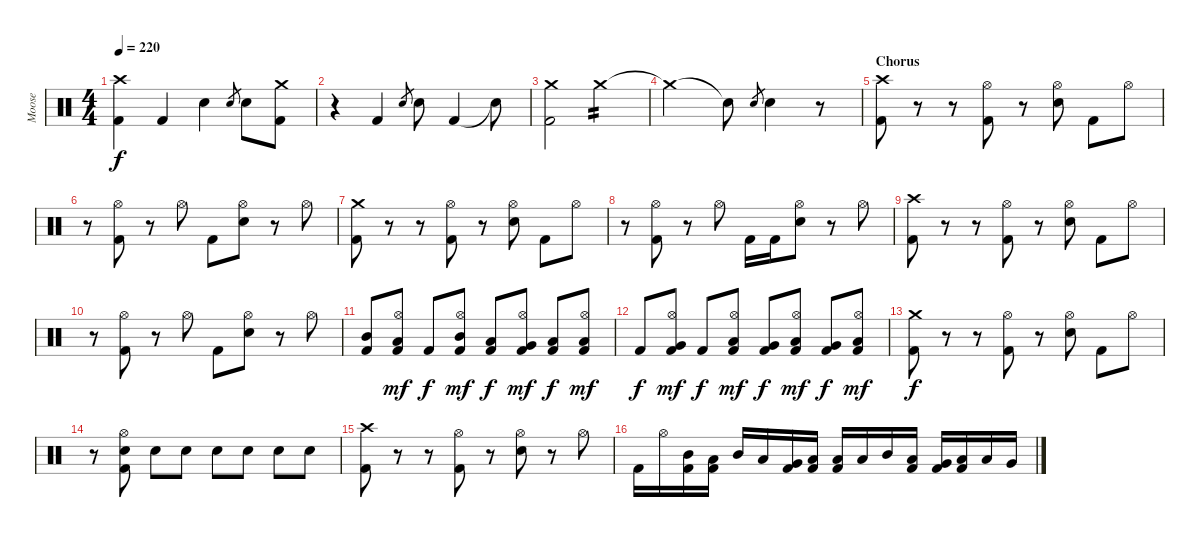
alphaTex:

\track ("Moose" "Moose") {instrument percussion}
\staff {score}
\articulation defaults
\ts (4 4)
\tempo 220
\clef neutral
\ks c
("Kick (hit) 2" "Crash high (hit)").4{dy f} "Kick (hit) 2".4 "Snare (hit) 2".4 "Snare (hit) 2".8{gr} "Snare (hit) 2".8 ("Kick (hit) 2" "Crash medium (hit)").8 |
r.4 "Kick (hit) 2".4 "Snare (hit) 2".8{gr} "Snare (hit) 2".8 "Kick (hit) 2".4 "Snare (hit)"{t}.8 |
("Kick (hit) 2" "Crash medium (hit)").2 "Crash medium (hit)".2{tp 2} |
"Crash medium (hit)"{t}.2 "Snare (hit)"{t}.8 "Snare (hit) 2".8{gr} "Snare (hit) 2".4 r.8 |
\section ("" "Chorus")
("Kick (hit) 2" "Crash high (hit)").8 r.8 r.8 ("Kick (hit) 2" "Hi-Hat (open)").8 r.8 ("Snare (hit) 2" "Hi-Hat (open)").8 "Kick (hit) 2".8 "Hi-Hat (open)".8 |
r.8 ("Kick (hit) 2" "Hi-Hat (open)").8 r.8 "Hi-Hat (open)".8 "Kick (hit) 2".8 ("Snare (hit) 2" "Hi-Hat (open)").8 r.8 "Hi-Hat (open)".8 |
("Kick (hit) 2" "Crash medium (hit)").8 r.8 r.8 ("Kick (hit) 2" "Hi-Hat (open)").8 r.8 ("Snare (hit) 2" "Hi-Hat (open)").8 "Kick (hit) 2".8 "Hi-Hat (open)".8 |
r.8 ("Kick (hit) 2" "Hi-Hat (open)").8 r.8 "Hi-Hat (open)".8 "Kick (hit) 2".16 "Kick (hit) 2".16 ("Snare (hit) 2" "Hi-Hat (open)").8 r.8 "Hi-Hat (open)".8 |
("Kick (hit) 2" "Crash high (hit)").8 r.8 r.8 ("Kick (hit) 2" "Hi-Hat (open)").8 r.8 ("Snare (hit) 2" "Hi-Hat (open)").8 "Kick (hit) 2".8 "Hi-Hat (open)".8 |
r.8 ("Kick (hit) 2" "Hi-Hat (open)").8 r.8 "Hi-Hat (open)".8 "Kick (hit) 2".8 ("Snare (hit) 2" "Hi-Hat (open)").8 r.8 "Hi-Hat (open)".8 |
("Kick (hit) 2" "Mid Tom (hit)").8 ("Kick (hit) 2" "Low Tom (hit)" "Hi-Hat (open)").8{dy mf} "Kick (hit) 2".8{dy f} ("Kick (hit) 2" "Mid Tom (hit)" "Hi-Hat (open)").8{dy mf} ("Kick (hit) 2" "Low Tom (hit)").8{dy f} ("Kick (hit) 2" "Very Low Tom (hit)" "Hi-Hat (open)").8{dy mf} ("Kick (hit) 2" "Low Floor Tom (hit)").8{dy f} ("Kick (hit) 2" "Low Floor Tom (hit)" "Hi-Hat (open)").8{dy mf} |
"Kick (hit) 2".8{dy f} ("Kick (hit) 2" "Very Low Tom (hit)" "Hi-Hat (open)").8{dy mf} "Kick (hit) 2".8{dy f} ("Kick (hit) 2" "Low Tom (hit)" "Hi-Hat (open)").8{dy mf} ("Kick (hit) 2" "Very Low Tom (hit)").8{dy f} ("Kick (hit) 2" "Low Floor Tom (hit)" "Hi-Hat (open)").8{dy mf} ("Kick (hit) 2" "Very Low Tom (hit)").8{dy f} ("Kick (hit) 2" "Low Floor Tom (hit)" "Hi-Hat (open)").8{dy mf} |
("Kick (hit) 2" "Crash medium (hit)").8{dy f} r.8 r.8 ("Kick (hit) 2" "Hi-Hat (open)").8 r.8 ("Snare (hit) 2" "Hi-Hat (open)").8 "Kick (hit) 2".8 "Hi-Hat (open)".8 |
r.8 ("Kick (hit) 2" "Snare (hit) 2" "Hi-Hat (open)").8 "Snare (hit) 2".8 "Snare (hit) 2".8 "Snare (hit) 2".8 "Snare (hit) 2".8 "Snare (hit) 2".8 "Snare (hit) 2".8 |
("Kick (hit) 2" "Crash high (hit)").8 r.8 r.8 ("Kick (hit) 2" "Hi-Hat (open)").8 r.8 ("Snare (hit) 2" "Hi-Hat (open)").8 r.8 "Hi-Hat (open)".8 |
"Kick (hit) 2".16 "Hi-Hat (open)".16 ("Kick (hit) 2" "Mid Tom (hit)").16 ("Kick (hit) 2" "Low Tom (hit)").16 "Mid Tom (hit)".16 "Low Tom (hit)".16 ("Kick (hit) 2" "Very Low Tom (hit)").16 ("Kick (hit) 2" "Low Tom (hit)").16 ("Kick (hit) 2" "Low Floor Tom (hit)").16 "Low Tom (hit)".16 "Mid Tom (hit)".16 ("Kick (hit) 2" "Low Tom (hit)").16 ("Kick (hit) 2" "Very Low Tom (hit)").16 ("Kick (hit) 2" "Low Floor Tom (hit)").16 "Low Floor Tom (hit)".16 "Very Low Tom (hit)".16
